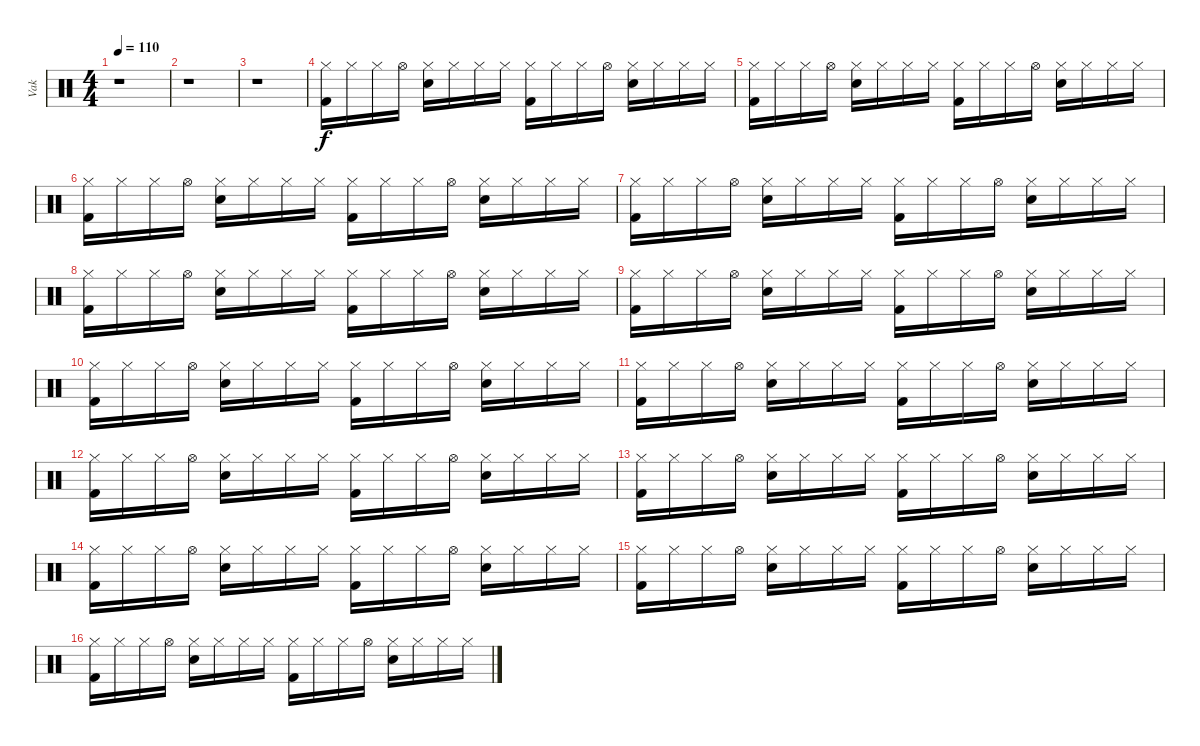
\track ("Vak" "Vak") {instrument percussion}
\staff {score}
\articulation defaults
\ts (4 4)
\tempo 110
\clef neutral
\ks c
r.1{dy f} |
r.1 |
r.1 |
("Hi-Hat (closed)" "Kick (hit) 2").16 "Hi-Hat (closed)".16 "Hi-Hat (closed)".16 "Hi-Hat (open)".16 ("Hi-Hat (closed)" "Snare (hit) 2").16 "Hi-Hat (closed)".16 "Hi-Hat (closed)".16 "Hi-Hat (closed)".16 ("Hi-Hat (closed)" "Kick (hit) 2").16 "Hi-Hat (closed)".16 "Hi-Hat (closed)".16 "Hi-Hat (open)".16 ("Hi-Hat (closed)" "Snare (hit) 2").16 "Hi-Hat (closed)".16 "Hi-Hat (closed)".16 "Hi-Hat (closed)".16 |
("Hi-Hat (closed)" "Kick (hit) 2").16 "Hi-Hat (closed)".16 "Hi-Hat (closed)".16 "Hi-Hat (open)".16 ("Hi-Hat (closed)" "Snare (hit) 2").16 "Hi-Hat (closed)".16 "Hi-Hat (closed)".16 "Hi-Hat (closed)".16 ("Hi-Hat (closed)" "Kick (hit) 2").16 "Hi-Hat (closed)".16 "Hi-Hat (closed)".16 "Hi-Hat (open)".16 ("Hi-Hat (closed)" "Snare (hit) 2").16 "Hi-Hat (closed)".16 "Hi-Hat (closed)".16 "Hi-Hat (closed)".16 |
("Hi-Hat (closed)" "Kick (hit) 2").16 "Hi-Hat (closed)".16 "Hi-Hat (closed)".16 "Hi-Hat (open)".16 ("Hi-Hat (closed)" "Snare (hit) 2").16 "Hi-Hat (closed)".16 "Hi-Hat (closed)".16 "Hi-Hat (closed)".16 ("Hi-Hat (closed)" "Kick (hit) 2").16 "Hi-Hat (closed)".16 "Hi-Hat (closed)".16 "Hi-Hat (open)".16 ("Hi-Hat (closed)" "Snare (hit) 2").16 "Hi-Hat (closed)".16 "Hi-Hat (closed)".16 "Hi-Hat (closed)".16 |
("Hi-Hat (closed)" "Kick (hit) 2").16 "Hi-Hat (closed)".16 "Hi-Hat (closed)".16 "Hi-Hat (open)".16 ("Hi-Hat (closed)" "Snare (hit) 2").16 "Hi-Hat (closed)".16 "Hi-Hat (closed)".16 "Hi-Hat (closed)".16 ("Hi-Hat (closed)" "Kick (hit) 2").16 "Hi-Hat (closed)".16 "Hi-Hat (closed)".16 "Hi-Hat (open)".16 ("Hi-Hat (closed)" "Snare (hit) 2").16 "Hi-Hat (closed)".16 "Hi-Hat (closed)".16 "Hi-Hat (closed)".16 |
("Hi-Hat (closed)" "Kick (hit) 2").16 "Hi-Hat (closed)".16 "Hi-Hat (closed)".16 "Hi-Hat (open)".16 ("Hi-Hat (closed)" "Snare (hit) 2").16 "Hi-Hat (closed)".16 "Hi-Hat (closed)".16 "Hi-Hat (closed)".16 ("Hi-Hat (closed)" "Kick (hit) 2").16 "Hi-Hat (closed)".16 "Hi-Hat (closed)".16 "Hi-Hat (open)".16 ("Hi-Hat (closed)" "Snare (hit) 2").16 "Hi-Hat (closed)".16 "Hi-Hat (closed)".16 "Hi-Hat (closed)".16 |
("Hi-Hat (closed)" "Kick (hit) 2").16 "Hi-Hat (closed)".16 "Hi-Hat (closed)".16 "Hi-Hat (open)".16 ("Hi-Hat (closed)" "Snare (hit) 2").16 "Hi-Hat (closed)".16 "Hi-Hat (closed)".16 "Hi-Hat (closed)".16 ("Hi-Hat (closed)" "Kick (hit) 2").16 "Hi-Hat (closed)".16 "Hi-Hat (closed)".16 "Hi-Hat (open)".16 ("Hi-Hat (closed)" "Snare (hit) 2").16 "Hi-Hat (closed)".16 "Hi-Hat (closed)".16 "Hi-Hat (closed)".16 |
("Hi-Hat (closed)" "Kick (hit) 2").16 "Hi-Hat (closed)".16 "Hi-Hat (closed)".16 "Hi-Hat (open)".16 ("Hi-Hat (closed)" "Snare (hit) 2").16 "Hi-Hat (closed)".16 "Hi-Hat (closed)".16 "Hi-Hat (closed)".16 ("Hi-Hat (closed)" "Kick (hit) 2").16 "Hi-Hat (closed)".16 "Hi-Hat (closed)".16 "Hi-Hat (open)".16 ("Hi-Hat (closed)" "Snare (hit) 2").16 "Hi-Hat (closed)".16 "Hi-Hat (closed)".16 "Hi-Hat (closed)".16 |
("Hi-Hat (closed)" "Kick (hit) 2").16 "Hi-Hat (closed)".16 "Hi-Hat (closed)".16 "Hi-Hat (open)".16 ("Hi-Hat (closed)" "Snare (hit) 2").16 "Hi-Hat (closed)".16 "Hi-Hat (closed)".16 "Hi-Hat (closed)".16 ("Hi-Hat (closed)" "Kick (hit) 2").16 "Hi-Hat (closed)".16 "Hi-Hat (closed)".16 "Hi-Hat (open)".16 ("Hi-Hat (closed)" "Snare (hit) 2").16 "Hi-Hat (closed)".16 "Hi-Hat (closed)".16 "Hi-Hat (closed)".16 |
("Hi-Hat (closed)" "Kick (hit) 2").16 "Hi-Hat (closed)".16 "Hi-Hat (closed)".16 "Hi-Hat (open)".16 ("Hi-Hat (closed)" "Snare (hit) 2").16 "Hi-Hat (closed)".16 "Hi-Hat (closed)".16 "Hi-Hat (closed)".16 ("Hi-Hat (closed)" "Kick (hit) 2").16 "Hi-Hat (closed)".16 "Hi-Hat (closed)".16 "Hi-Hat (open)".16 ("Hi-Hat (closed)" "Snare (hit) 2").16 "Hi-Hat (closed)".16 "Hi-Hat (closed)".16 "Hi-Hat (closed)".16 |
("Hi-Hat (closed)" "Kick (hit) 2").16 "Hi-Hat (closed)".16 "Hi-Hat (closed)".16 "Hi-Hat (open)".16 ("Hi-Hat (closed)" "Snare (hit) 2").16 "Hi-Hat (closed)".16 "Hi-Hat (closed)".16 "Hi-Hat (closed)".16 ("Hi-Hat (closed)" "Kick (hit) 2").16 "Hi-Hat (closed)".16 "Hi-Hat (closed)".16 "Hi-Hat (open)".16 ("Hi-Hat (closed)" "Snare (hit) 2").16 "Hi-Hat (closed)".16 "Hi-Hat (closed)".16 "Hi-Hat (closed)".16 |
("Hi-Hat (closed)" "Kick (hit) 2").16 "Hi-Hat (closed)".16 "Hi-Hat (closed)".16 "Hi-Hat (open)".16 ("Hi-Hat (closed)" "Snare (hit) 2").16 "Hi-Hat (closed)".16 "Hi-Hat (closed)".16 "Hi-Hat (closed)".16 ("Hi-Hat (closed)" "Kick (hit) 2").16 "Hi-Hat (closed)".16 "Hi-Hat (closed)".16 "Hi-Hat (open)".16 ("Hi-Hat (closed)" "Snare (hit) 2").16 "Hi-Hat (closed)".16 "Hi-Hat (closed)".16 "Hi-Hat (closed)".16 |
("Hi-Hat (closed)" "Kick (hit) 2").16 "Hi-Hat (closed)".16 "Hi-Hat (closed)".16 "Hi-Hat (open)".16 ("Hi-Hat (closed)" "Snare (hit) 2").16 "Hi-Hat (closed)".16 "Hi-Hat (closed)".16 "Hi-Hat (closed)".16 ("Hi-Hat (closed)" "Kick (hit) 2").16 "Hi-Hat (closed)".16 "Hi-Hat (closed)".16 "Hi-Hat (open)".16 ("Hi-Hat (closed)" "Snare (hit) 2").16 "Hi-Hat (closed)".16 "Hi-Hat (closed)".16 "Hi-Hat (closed)".16 |
("Hi-Hat (closed)" "Kick (hit) 2").16 "Hi-Hat (closed)".16 "Hi-Hat (closed)".16 "Hi-Hat (open)".16 ("Hi-Hat (closed)" "Snare (hit) 2").16 "Hi-Hat (closed)".16 "Hi-Hat (closed)".16 "Hi-Hat (closed)".16 ("Hi-Hat (closed)" "Kick (hit) 2").16 "Hi-Hat (closed)".16 "Hi-Hat (closed)".16 "Hi-Hat (open)".16 ("Hi-Hat (closed)" "Snare (hit) 2").16 "Hi-Hat (closed)".16 "Hi-Hat (closed)".16 "Hi-Hat (closed)".16
